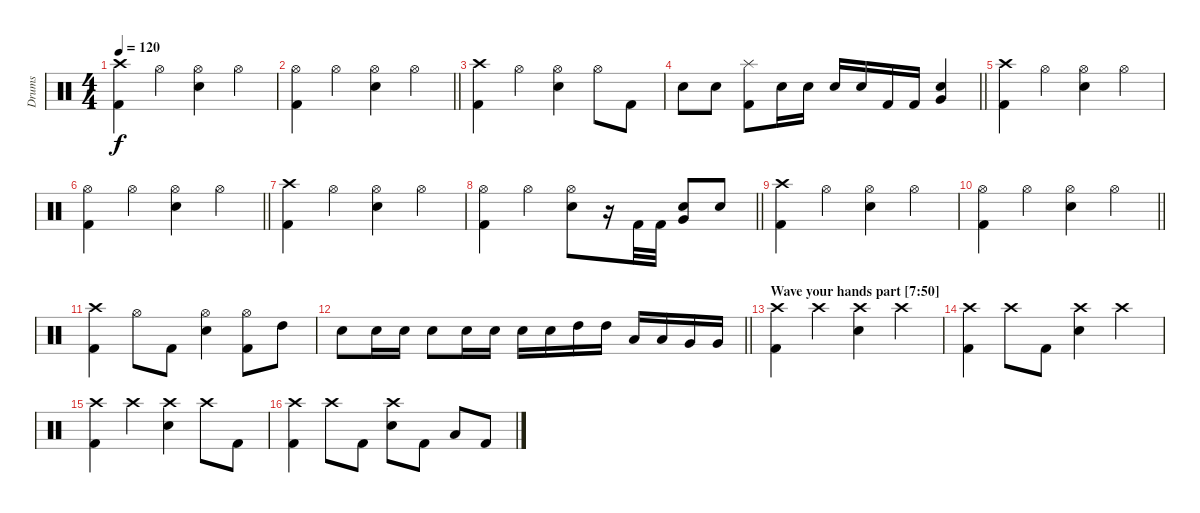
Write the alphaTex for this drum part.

\track ("Drums" "Drums") {instrument percussion}
\staff {score}
\articulation defaults
\ts (4 4)
\tempo 120
\clef neutral
\ks c
("Crash high (hit)" "Kick (hit) 2").4{dy f} "Hi-Hat (open)".4 ("Hi-Hat (open)" "Snare (hit) 2").4 "Hi-Hat (open)".4 |
\barLineRight lightlight
("Hi-Hat (open)" "Kick (hit) 2").4 "Hi-Hat (open)".4 ("Hi-Hat (open)" "Snare (hit) 2").4 "Hi-Hat (open)".4 |
("Crash high (hit)" "Kick (hit) 2").4 "Hi-Hat (open)".4 ("Hi-Hat (open)" "Snare (hit) 2").4 "Hi-Hat (open)".8 "Kick (hit) 2".8 |
\barLineRight lightlight "Snare (hit) 2".8 "Snare (hit) 2".8
("Splash (hit)" "Kick (hit) 2").8 "Snare (hit) 2".16 "Snare (hit) 2".16 "Snare (hit) 2".16 "Snare (hit) 2".16 "Kick (hit) 2".16 "Kick (hit) 2".16 ("Very Low Tom (hit)" "Snare (hit) 2").4 |
("Crash high (hit)" "Kick (hit) 2").4 "Hi-Hat (open)".4 ("Hi-Hat (open)" "Snare (hit) 2").4 "Hi-Hat (open)".4 |
\barLineRight lightlight
("Hi-Hat (open)" "Kick (hit) 2").4 "Hi-Hat (open)".4 ("Hi-Hat (open)" "Snare (hit) 2").4 "Hi-Hat (open)".4 |
("Crash high (hit)" "Kick (hit) 2").4 "Hi-Hat (open)".4 ("Hi-Hat (open)" "Snare (hit) 2").4 "Hi-Hat (open)".4 |
\barLineRight lightlight
("Hi-Hat (open)" "Kick (hit) 2").4 "Hi-Hat (open)".4 ("Hi-Hat (open)" "Snare (hit) 2").8 r.16 "Kick (hit) 2".32 "Kick (hit) 2".32 ("Very Low Tom (hit)" "Snare (hit) 2").8 "Snare (hit) 2".8 |
("Crash high (hit)" "Kick (hit) 2").4 "Hi-Hat (open)".4 ("Hi-Hat (open)" "Snare (hit) 2").4 "Hi-Hat (open)".4 |
\barLineRight lightlight
("Hi-Hat (open)" "Kick (hit) 2").4 "Hi-Hat (open)".4 ("Hi-Hat (open)" "Snare (hit) 2").4 "Hi-Hat (open)".4 |
("Crash high (hit)" "Kick (hit) 2").4 "Hi-Hat (open)".8 "Kick (hit) 2".8 ("Hi-Hat (open)" "Snare (hit) 2").4 ("Hi-Hat (open)" "Kick (hit) 2").8 "High Tom (hit)".8 |
\barLineRight lightlight "Snare (hit) 2".8 "Snare (hit) 2".16 "Snare (hit) 2".16 "Snare (hit) 2".8 "Snare (hit) 2".16 "Snare (hit) 2".16 "Snare (hit) 2".16 "Snare (hit) 2".16 "High Tom (hit)".16 "High Tom (hit)".16 "Low Tom (hit)".16 "Low Tom (hit)".16 "Very Low Tom (hit)".16 "Very Low Tom (hit)".16
|
\section ("" "Wave your hands part [7:50]")
("Crash high (hit)" "Kick (hit) 2").4 "Crash high (hit)".4 ("Crash high (hit)" "Snare (hit) 2").4 "Crash high (hit)".4 |
("Crash high (hit)" "Kick (hit) 2").4 "Crash high (hit)".8 "Kick (hit) 2".8 ("Crash high (hit)" "Snare (hit) 2").4 "Crash high (hit)".4 |
("Crash high (hit)" "Kick (hit) 2").4 "Crash high (hit)".4 ("Crash high (hit)" "Snare (hit) 2").4 "Crash high (hit)".8 "Kick (hit) 2".8 |
("Crash high (hit)" "Kick (hit) 2").4 "Crash high (hit)".8 "Kick (hit) 2".8 ("Crash high (hit)" "Snare (hit) 2").8 "Kick (hit) 2".8 "Low Tom (hit)".8 "Kick (hit) 2".8
